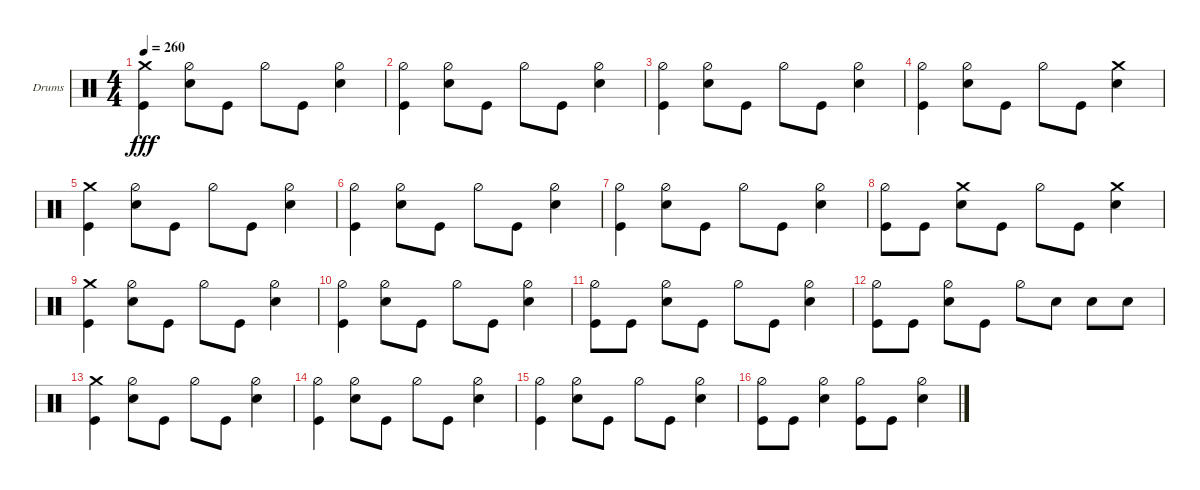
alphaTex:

\defaultSystemsLayout 4
\bracketExtendMode groupsimilarinstruments
\firstSystemTrackNameOrientation horizontal
\otherSystemsTrackNameOrientation horizontal
\track ("Stefan Schwarzmann" "Drums") {instrument percussion}
\staff {score}
\articulation defaults
\ts (4 4)
\tempo 260
\clef neutral
\ks c
("Kick (hit)" "Crash medium (hit)").4{dy fff} ("Snare (hit) 2" "Hi-Hat (half)").8 "Kick (hit)".8 "Hi-Hat (half)".8 "Kick (hit)".8 ("Snare (hit) 2" "Hi-Hat (half)").4 |
("Kick (hit)" "Hi-Hat (half)").4 ("Snare (hit) 2" "Hi-Hat (half)").8 "Kick (hit)".8 "Hi-Hat (half)".8 "Kick (hit)".8 ("Snare (hit) 2" "Hi-Hat (half)").4 |
("Kick (hit)" "Hi-Hat (half)").4 ("Snare (hit) 2" "Hi-Hat (half)").8 "Kick (hit)".8 "Hi-Hat (half)".8 "Kick (hit)".8 ("Snare (hit) 2" "Hi-Hat (half)").4 |
("Kick (hit)" "Hi-Hat (half)").4 ("Snare (hit) 2" "Hi-Hat (half)").8 "Kick (hit)".8 "Hi-Hat (half)".8 "Kick (hit)".8 ("Snare (hit) 2" "Crash medium (hit)").4 |
("Kick (hit)" "Crash medium (hit)").4 ("Snare (hit) 2" "Hi-Hat (half)").8 "Kick (hit)".8 "Hi-Hat (half)".8 "Kick (hit)".8 ("Snare (hit) 2" "Hi-Hat (half)").4 |
("Kick (hit)" "Hi-Hat (half)").4 ("Snare (hit) 2" "Hi-Hat (half)").8 "Kick (hit)".8 "Hi-Hat (half)".8 "Kick (hit)".8 ("Snare (hit) 2" "Hi-Hat (half)").4 |
("Kick (hit)" "Hi-Hat (half)").4 ("Snare (hit) 2" "Hi-Hat (half)").8 "Kick (hit)".8 "Hi-Hat (half)".8 "Kick (hit)".8 ("Snare (hit) 2" "Hi-Hat (half)").4 |
("Kick (hit)" "Hi-Hat (half)").8 "Kick (hit)".8 ("Snare (hit) 2" "Crash medium (hit)").8 "Kick (hit)".8 "Hi-Hat (half)".8 "Kick (hit)".8 ("Snare (hit) 2" "Crash medium (hit)").4 |
("Kick (hit)" "Crash medium (hit)").4 ("Snare (hit) 2" "Hi-Hat (half)").8 "Kick (hit)".8 "Hi-Hat (half)".8 "Kick (hit)".8 ("Snare (hit) 2" "Hi-Hat (half)").4 |
("Kick (hit)" "Hi-Hat (half)").4 ("Snare (hit) 2" "Hi-Hat (half)").8 "Kick (hit)".8 "Hi-Hat (half)".8 "Kick (hit)".8 ("Snare (hit) 2" "Hi-Hat (half)").4 |
("Kick (hit)" "Hi-Hat (half)").8 "Kick (hit)".8 ("Snare (hit) 2" "Hi-Hat (half)").8 "Kick (hit)".8 "Hi-Hat (half)".8 "Kick (hit)".8 ("Snare (hit) 2" "Hi-Hat (half)").4 |
("Kick (hit)" "Hi-Hat (half)").8 "Kick (hit)".8 ("Snare (hit) 2" "Hi-Hat (half)").8 "Kick (hit)".8 "Hi-Hat (half)".8 "Snare (hit) 2".8 "Snare (hit) 2".8 "Snare (hit) 2".8 |
("Kick (hit)" "Crash medium (hit)").4 ("Snare (hit) 2" "Hi-Hat (half)").8 "Kick (hit)".8 "Hi-Hat (half)".8 "Kick (hit)".8 ("Snare (hit) 2" "Hi-Hat (half)").4 |
("Kick (hit)" "Hi-Hat (half)").4 ("Snare (hit) 2" "Hi-Hat (half)").8 "Kick (hit)".8 "Hi-Hat (half)".8 "Kick (hit)".8 ("Snare (hit) 2" "Hi-Hat (half)").4 |
("Kick (hit)" "Hi-Hat (half)").4 ("Snare (hit) 2" "Hi-Hat (half)").8 "Kick (hit)".8 "Hi-Hat (half)".8 "Kick (hit)".8 ("Snare (hit) 2" "Hi-Hat (half)").4 |
("Kick (hit)" "Hi-Hat (half)").8 "Kick (hit)".8 ("Snare (hit) 2" "Hi-Hat (half)").4 ("Kick (hit)" "Hi-Hat (half)").8 "Kick (hit)".8 ("Snare (hit) 2" "Hi-Hat (half)").4
